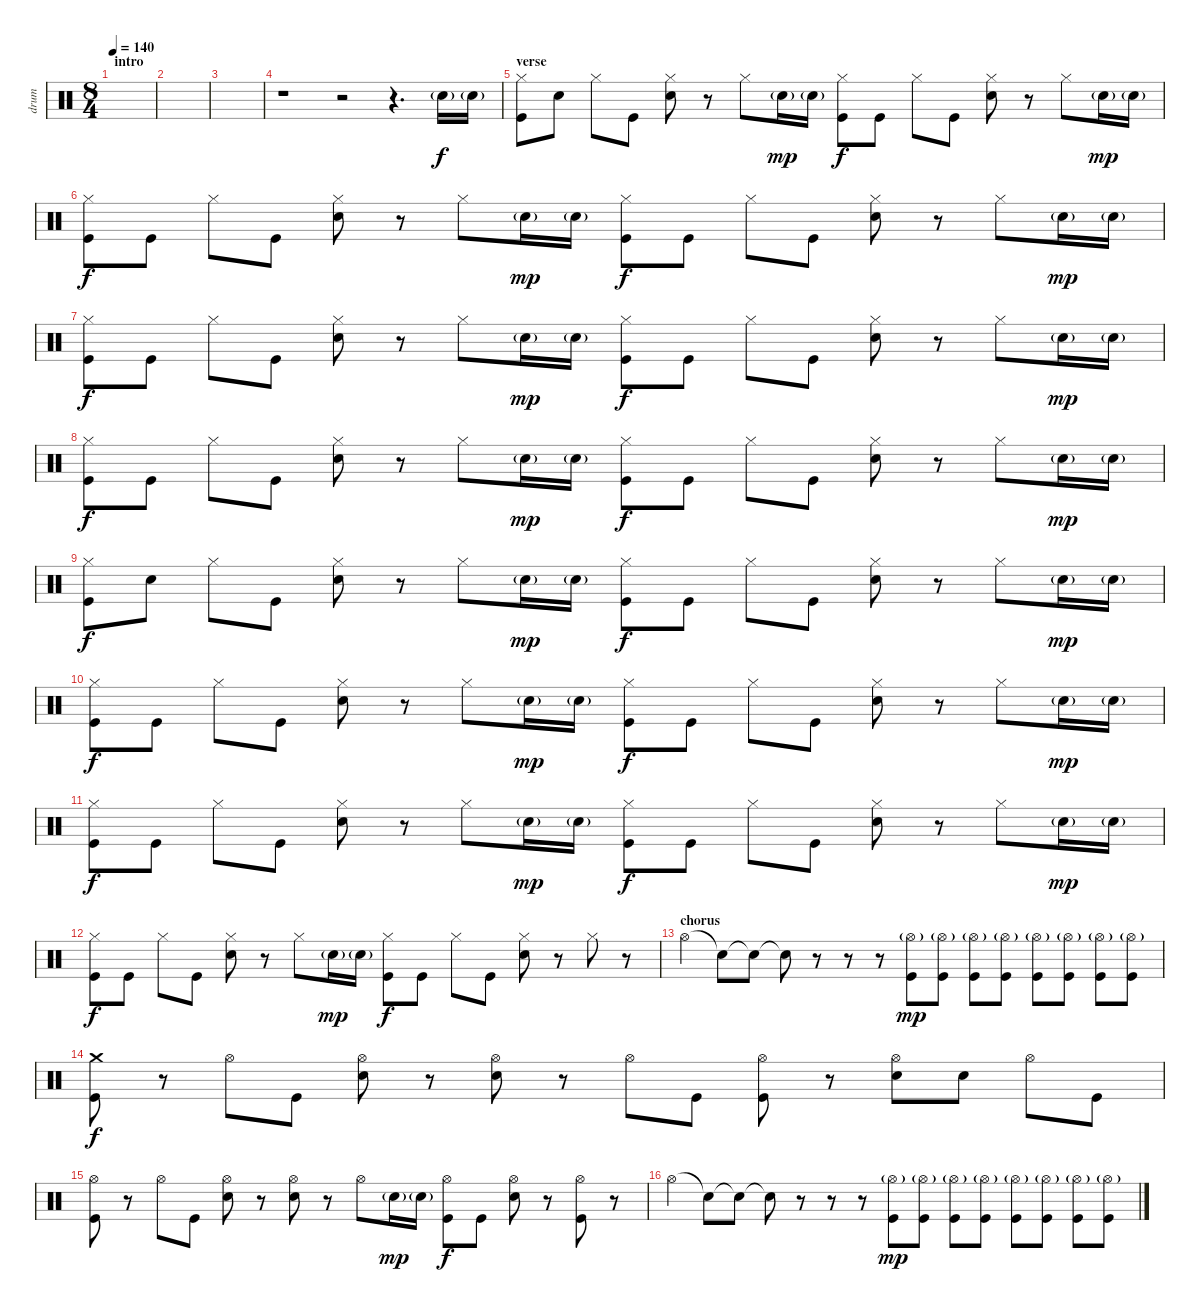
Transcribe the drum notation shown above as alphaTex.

\track ("drum" "drum") {instrument percussion}
\staff {score}
\articulation defaults
\ts (8 4)
\section ("" "intro")
\tempo 140
\clef neutral
\ks c
|
|
|
r.1 r.2 r.4{d} "Electric Snare (hit)"{g}.16{volume 11} "Electric Snare (hit)"{g}.16 |
\section ("" "verse")
("Hi-Hat (closed)" "Kick (hit)").8{dy f volume 16} "Electric Snare (hit)".8 "Hi-Hat (closed)".8 "Kick (hit)".8 ("Hi-Hat (closed)" "Electric Snare (hit)").8 r.8 "Hi-Hat (closed)".8 "Electric Snare (hit)"{g}.16{dy mp volume 11} "Electric Snare (hit)"{g}.16 ("Hi-Hat (closed)" "Kick (hit)").8{dy f volume 16} "Kick (hit)".8 "Hi-Hat (closed)".8 "Kick (hit)".8 ("Hi-Hat (closed)" "Electric Snare (hit)").8 r.8 "Hi-Hat (closed)".8 "Electric Snare (hit)"{g}.16{dy mp volume 11} "Electric Snare (hit)"{g}.16 |
("Hi-Hat (closed)" "Kick (hit)").8{dy f volume 16} "Kick (hit)".8 "Hi-Hat (closed)".8 "Kick (hit)".8 ("Hi-Hat (closed)" "Electric Snare (hit)").8 r.8 "Hi-Hat (closed)".8 "Electric Snare (hit)"{g}.16{dy mp volume 11} "Electric Snare (hit)"{g}.16 ("Hi-Hat (closed)" "Kick (hit)").8{dy f volume 16} "Kick (hit)".8 "Hi-Hat (closed)".8 "Kick (hit)".8 ("Hi-Hat (closed)" "Electric Snare (hit)").8 r.8 "Hi-Hat (closed)".8 "Electric Snare (hit)"{g}.16{dy mp volume 11} "Electric Snare (hit)"{g}.16 |
("Hi-Hat (closed)" "Kick (hit)").8{dy f volume 16} "Kick (hit)".8 "Hi-Hat (closed)".8 "Kick (hit)".8 ("Hi-Hat (closed)" "Electric Snare (hit)").8 r.8 "Hi-Hat (closed)".8 "Electric Snare (hit)"{g}.16{dy mp volume 11} "Electric Snare (hit)"{g}.16 ("Hi-Hat (closed)" "Kick (hit)").8{dy f volume 16} "Kick (hit)".8 "Hi-Hat (closed)".8 "Kick (hit)".8 ("Hi-Hat (closed)" "Electric Snare (hit)").8 r.8 "Hi-Hat (closed)".8 "Electric Snare (hit)"{g}.16{dy mp volume 11} "Electric Snare (hit)"{g}.16 |
("Hi-Hat (closed)" "Kick (hit)").8{dy f volume 16} "Kick (hit)".8 "Hi-Hat (closed)".8 "Kick (hit)".8 ("Hi-Hat (closed)" "Electric Snare (hit)").8 r.8 "Hi-Hat (closed)".8 "Electric Snare (hit)"{g}.16{dy mp volume 11} "Electric Snare (hit)"{g}.16 ("Hi-Hat (closed)" "Kick (hit)").8{dy f volume 16} "Kick (hit)".8 "Hi-Hat (closed)".8 "Kick (hit)".8 ("Hi-Hat (closed)" "Electric Snare (hit)").8 r.8 "Hi-Hat (closed)".8 "Electric Snare (hit)"{g}.16{dy mp volume 11} "Electric Snare (hit)"{g}.16 |
("Hi-Hat (closed)" "Kick (hit)").8{dy f volume 16} "Electric Snare (hit)".8 "Hi-Hat (closed)".8 "Kick (hit)".8 ("Hi-Hat (closed)" "Electric Snare (hit)").8 r.8 "Hi-Hat (closed)".8 "Electric Snare (hit)"{g}.16{dy mp volume 11} "Electric Snare (hit)"{g}.16 ("Hi-Hat (closed)" "Kick (hit)").8{dy f volume 16} "Kick (hit)".8 "Hi-Hat (closed)".8 "Kick (hit)".8 ("Hi-Hat (closed)" "Electric Snare (hit)").8 r.8 "Hi-Hat (closed)".8 "Electric Snare (hit)"{g}.16{dy mp volume 11} "Electric Snare (hit)"{g}.16 |
("Hi-Hat (closed)" "Kick (hit)").8{dy f volume 16} "Kick (hit)".8 "Hi-Hat (closed)".8 "Kick (hit)".8 ("Hi-Hat (closed)" "Electric Snare (hit)").8 r.8 "Hi-Hat (closed)".8 "Electric Snare (hit)"{g}.16{dy mp volume 11} "Electric Snare (hit)"{g}.16 ("Hi-Hat (closed)" "Kick (hit)").8{dy f volume 16} "Kick (hit)".8 "Hi-Hat (closed)".8 "Kick (hit)".8 ("Hi-Hat (closed)" "Electric Snare (hit)").8 r.8 "Hi-Hat (closed)".8 "Electric Snare (hit)"{g}.16{dy mp volume 11} "Electric Snare (hit)"{g}.16 |
("Hi-Hat (closed)" "Kick (hit)").8{dy f volume 16} "Kick (hit)".8 "Hi-Hat (closed)".8 "Kick (hit)".8 ("Hi-Hat (closed)" "Electric Snare (hit)").8 r.8 "Hi-Hat (closed)".8 "Electric Snare (hit)"{g}.16{dy mp volume 11} "Electric Snare (hit)"{g}.16 ("Hi-Hat (closed)" "Kick (hit)").8{dy f volume 16} "Kick (hit)".8 "Hi-Hat (closed)".8 "Kick (hit)".8 ("Hi-Hat (closed)" "Electric Snare (hit)").8 r.8 "Hi-Hat (closed)".8 "Electric Snare (hit)"{g}.16{dy mp volume 11} "Electric Snare (hit)"{g}.16 |
("Hi-Hat (closed)" "Kick (hit)").8{dy f volume 16} "Kick (hit)".8 "Hi-Hat (closed)".8 "Kick (hit)".8 ("Hi-Hat (closed)" "Electric Snare (hit)").8 r.8 "Hi-Hat (closed)".8 "Electric Snare (hit)"{g}.16{dy mp volume 11} "Electric Snare (hit)"{g}.16 ("Hi-Hat (closed)" "Kick (hit)").8{dy f volume 16} "Kick (hit)".8 "Hi-Hat (closed)".8 "Kick (hit)".8 ("Hi-Hat (closed)" "Electric Snare (hit)").8 r.8 "Hi-Hat (closed)".8 r.8 |
\section ("" "chorus")
"Hi-Hat (open)".4 "Snare (hit)"{t}.8 "Snare (hit)"{t}.8 "Snare (hit)"{t}.8 r.8 r.8 r.8 ("Hi-Hat (open)"{g} "Kick (hit)").8{dy mp volume 8} ("Hi-Hat (open)"{g} "Kick (hit)").8{volume 9} ("Hi-Hat (open)"{g} "Kick (hit)").8{volume 10} ("Hi-Hat (open)"{g} "Kick (hit)").8{volume 11} ("Hi-Hat (open)"{g} "Kick (hit)").8{volume 12} ("Hi-Hat (open)"{g} "Kick (hit)").8{volume 13} ("Hi-Hat (open)"{g} "Kick (hit)").8{volume 15} ("Hi-Hat (open)"{g} "Kick (hit)").8{volume 16} |
("Crash medium (hit)" "Kick (hit)").8{dy f} r.8 "Hi-Hat (open)".8 "Kick (hit)".8 ("Hi-Hat (open)" "Electric Snare (hit)").8 r.8 ("Hi-Hat (open)" "Electric Snare (hit)").8 r.8 "Hi-Hat (open)".8 "Kick (hit)".8 ("Hi-Hat (open)" "Kick (hit)").8 r.8 ("Hi-Hat (open)" "Electric Snare (hit)").8 "Electric Snare (hit)".8 "Hi-Hat (open)".8 "Kick (hit)".8 |
("Hi-Hat (open)" "Kick (hit)").8 r.8 "Hi-Hat (open)".8 "Kick (hit)".8 ("Hi-Hat (open)" "Electric Snare (hit)").8 r.8 ("Hi-Hat (open)" "Electric Snare (hit)").8 r.8 "Hi-Hat (open)".8 "Electric Snare (hit)"{g}.16{dy mp} "Electric Snare (hit)"{g}.16 ("Hi-Hat (open)" "Kick (hit)").8{dy f} "Kick (hit)".8 ("Hi-Hat (open)" "Electric Snare (hit)").8 r.8 ("Hi-Hat (open)" "Kick (hit)").8 r.8 |
"Hi-Hat (open)".4 "Snare (hit)"{t}.8 "Snare (hit)"{t}.8 "Snare (hit)"{t}.8 r.8 r.8 r.8 ("Hi-Hat (open)"{g} "Kick (hit)").8{dy mp volume 8} ("Hi-Hat (open)"{g} "Kick (hit)").8{volume 9} ("Hi-Hat (open)"{g} "Kick (hit)").8{volume 10} ("Hi-Hat (open)"{g} "Kick (hit)").8{volume 11} ("Hi-Hat (open)"{g} "Kick (hit)").8{volume 12} ("Hi-Hat (open)"{g} "Kick (hit)").8{volume 13} ("Hi-Hat (open)"{g} "Kick (hit)").8{volume 15} ("Hi-Hat (open)"{g} "Kick (hit)").8{volume 16}
